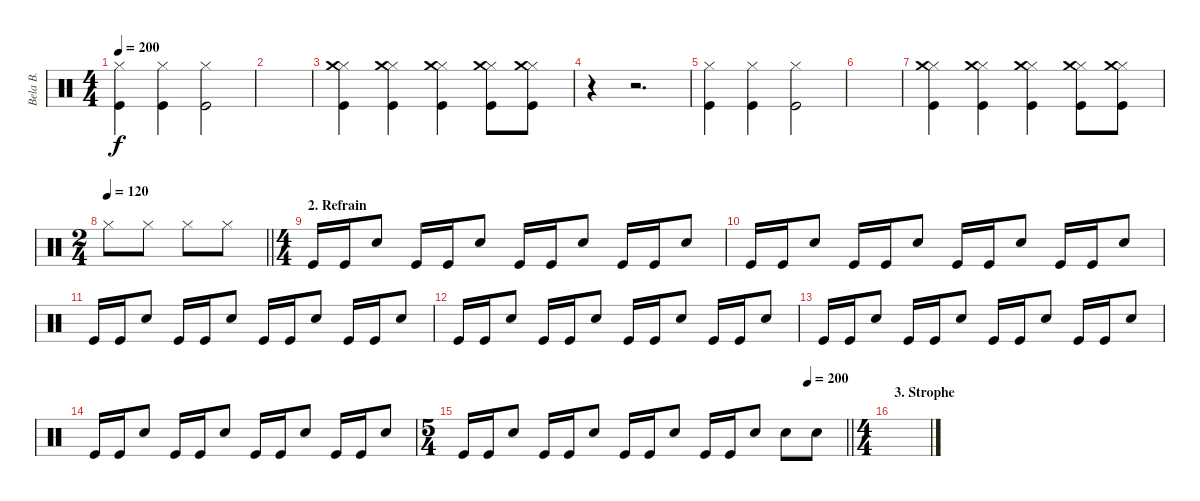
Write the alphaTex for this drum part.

\track ("Bela B." "Bela B.") {instrument percussion}
\staff {score}
\articulation defaults
\ts (4 4)
\tempo 200
\clef neutral
\ks c
("Hi-Hat (closed)" "Kick (hit)").4{dy f} ("Hi-Hat (closed)" "Kick (hit)").4 ("Hi-Hat (closed)" "Kick (hit)").2 |
|
("Hi-Hat (closed)" "Crash medium (hit)" "Kick (hit)").4 ("Hi-Hat (closed)" "Crash medium (hit)" "Kick (hit)").4 ("Hi-Hat (closed)" "Crash medium (hit)" "Kick (hit)").4 ("Hi-Hat (closed)" "Crash medium (hit)" "Kick (hit)").8 ("Hi-Hat (closed)" "Crash medium (hit)" "Kick (hit)").8 |
r.4 r.2{d} |
("Hi-Hat (closed)" "Kick (hit)").4 ("Hi-Hat (closed)" "Kick (hit)").4 ("Hi-Hat (closed)" "Kick (hit)").2 |
|
("Hi-Hat (closed)" "Crash medium (hit)" "Kick (hit)").4 ("Hi-Hat (closed)" "Crash medium (hit)" "Kick (hit)").4 ("Hi-Hat (closed)" "Crash medium (hit)" "Kick (hit)").4 ("Hi-Hat (closed)" "Crash medium (hit)" "Kick (hit)").8 ("Hi-Hat (closed)" "Crash medium (hit)" "Kick (hit)").8 |
\ts (2 4)
\tempo 120
\barLineRight lightlight "Hi-Hat (closed)".8 "Hi-Hat (closed)".8 "Hi-Hat (closed)".8 "Hi-Hat (closed)".8
|
\ts (4 4)
\section ("" "2. Refrain")
"Kick (hit)".16 "Kick (hit)".16 "Snare (hit) 2".8 "Kick (hit)".16 "Kick (hit)".16 "Snare (hit) 2".8 "Kick (hit)".16 "Kick (hit)".16 "Snare (hit) 2".8 "Kick (hit)".16 "Kick (hit)".16 "Snare (hit) 2".8 |
"Kick (hit)".16 "Kick (hit)".16 "Snare (hit) 2".8 "Kick (hit)".16 "Kick (hit)".16 "Snare (hit) 2".8 "Kick (hit)".16 "Kick (hit)".16 "Snare (hit) 2".8 "Kick (hit)".16 "Kick (hit)".16 "Snare (hit) 2".8 |
"Kick (hit)".16 "Kick (hit)".16 "Snare (hit) 2".8 "Kick (hit)".16 "Kick (hit)".16 "Snare (hit) 2".8 "Kick (hit)".16 "Kick (hit)".16 "Snare (hit) 2".8 "Kick (hit)".16 "Kick (hit)".16 "Snare (hit) 2".8 |
"Kick (hit)".16 "Kick (hit)".16 "Snare (hit) 2".8 "Kick (hit)".16 "Kick (hit)".16 "Snare (hit) 2".8 "Kick (hit)".16 "Kick (hit)".16 "Snare (hit) 2".8 "Kick (hit)".16 "Kick (hit)".16 "Snare (hit) 2".8 |
"Kick (hit)".16 "Kick (hit)".16 "Snare (hit) 2".8 "Kick (hit)".16 "Kick (hit)".16 "Snare (hit) 2".8 "Kick (hit)".16 "Kick (hit)".16 "Snare (hit) 2".8 "Kick (hit)".16 "Kick (hit)".16 "Snare (hit) 2".8 |
"Kick (hit)".16 "Kick (hit)".16 "Snare (hit) 2".8 "Kick (hit)".16 "Kick (hit)".16 "Snare (hit) 2".8 "Kick (hit)".16 "Kick (hit)".16 "Snare (hit) 2".8 "Kick (hit)".16 "Kick (hit)".16 "Snare (hit) 2".8 |
\ts (5 4)
\tempo (200 0.9)
\barLineRight lightlight "Kick (hit)".16 "Kick (hit)".16 "Snare (hit) 2".8 "Kick (hit)".16 "Kick (hit)".16 "Snare (hit) 2".8 "Kick (hit)".16 "Kick (hit)".16 "Snare (hit) 2".8 "Kick (hit)".16 "Kick (hit)".16 "Electric Snare (hit)".8 "Electric Snare (hit)".8 "Electric Snare (hit)".8
|
\ts (4 4)
\section ("" "3. Strophe")
